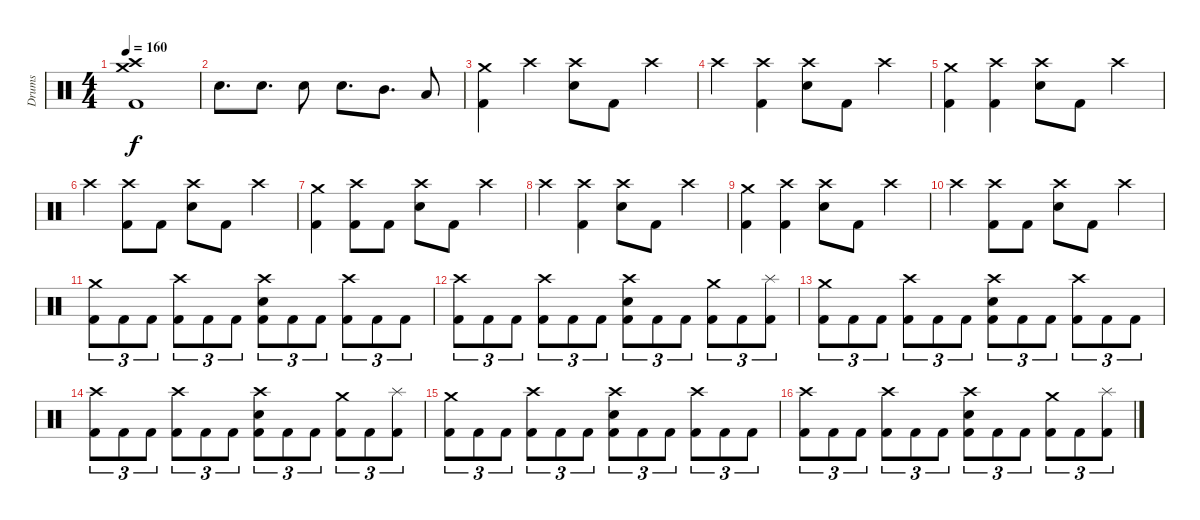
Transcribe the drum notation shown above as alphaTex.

\track ("Drums" "Drums") {instrument percussion}
\staff
\articulation defaults
\ts (4 4)
\tempo 160
\clef neutral
\ks c
("Crash medium (hit)" "Crash high (hit)" "Kick (hit) 2").1{dy f} |
"Electric Snare (hit)".8{d} "Electric Snare (hit)".8{d} "Electric Snare (hit)".8 "Electric Snare (hit)".8{d} "Mid Tom (hit)".8{d} "Low Tom (hit)".8 |
("Crash medium (hit)" "Kick (hit) 2").4 "Crash high (hit)".4 ("Crash high (hit)" "Electric Snare (hit)").8 "Kick (hit) 2".8 "Crash high (hit)".4 |
"Crash high (hit)".4 ("Crash high (hit)" "Kick (hit) 2").4 ("Crash high (hit)" "Electric Snare (hit)").8 "Kick (hit) 2".8 "Crash high (hit)".4 |
("Crash medium (hit)" "Kick (hit) 2").4 ("Crash high (hit)" "Kick (hit) 2").4 ("Crash high (hit)" "Electric Snare (hit)").8 "Kick (hit) 2".8 "Crash high (hit)".4 |
"Crash high (hit)".4 ("Crash high (hit)" "Kick (hit) 2").8 "Kick (hit) 2".8 ("Crash high (hit)" "Electric Snare (hit)").8 "Kick (hit) 2".8 "Crash high (hit)".4 |
("Crash medium (hit)" "Kick (hit) 2").4 ("Crash high (hit)" "Kick (hit) 2").8 "Kick (hit) 2".8 ("Crash high (hit)" "Electric Snare (hit)").8 "Kick (hit) 2".8 "Crash high (hit)".4 |
"Crash high (hit)".4 ("Crash high (hit)" "Kick (hit) 2").4 ("Crash high (hit)" "Electric Snare (hit)").8 "Kick (hit) 2".8 "Crash high (hit)".4 |
("Crash medium (hit)" "Kick (hit) 2").4 ("Crash high (hit)" "Kick (hit) 2").4 ("Crash high (hit)" "Electric Snare (hit)").8 "Kick (hit) 2".8 "Crash high (hit)".4 |
"Crash high (hit)".4 ("Crash high (hit)" "Kick (hit) 2").8 "Kick (hit) 2".8 ("Crash high (hit)" "Electric Snare (hit)").8 "Kick (hit) 2".8 "Crash high (hit)".4 |
("Crash medium (hit)" "Kick (hit) 2").8{tu (3 2)} "Kick (hit) 2".8{tu (3 2)} "Kick (hit) 2".8{tu (3 2)} ("Crash high (hit)" "Kick (hit) 2").8{tu (3 2)} "Kick (hit) 2".8{tu (3 2)} "Kick (hit) 2".8{tu (3 2)} ("Crash high (hit)" "Electric Snare (hit)" "Kick (hit) 2").8{tu (3 2)} "Kick (hit) 2".8{tu (3 2)} "Kick (hit) 2".8{tu (3 2)} ("Crash high (hit)" "Kick (hit) 2").8{tu (3 2)} "Kick (hit) 2".8{tu (3 2)} "Kick (hit) 2".8{tu (3 2)} |
("Crash high (hit)" "Kick (hit) 2").8{tu (3 2)} "Kick (hit) 2".8{tu (3 2)} "Kick (hit) 2".8{tu (3 2)} ("Crash high (hit)" "Kick (hit) 2").8{tu (3 2)} "Kick (hit) 2".8{tu (3 2)} "Kick (hit) 2".8{tu (3 2)} ("Crash high (hit)" "Electric Snare (hit)" "Kick (hit) 2").8{tu (3 2)} "Kick (hit) 2".8{tu (3 2)} "Kick (hit) 2".8{tu (3 2)} ("Crash medium (hit)" "Kick (hit) 2").8{tu (3 2)} "Kick (hit) 2".8{tu (3 2)} ("Splash (hit)" "Kick (hit) 2").8{tu (3 2)} |
("Crash medium (hit)" "Kick (hit) 2").8{tu (3 2)} "Kick (hit) 2".8{tu (3 2)} "Kick (hit) 2".8{tu (3 2)} ("Crash high (hit)" "Kick (hit) 2").8{tu (3 2)} "Kick (hit) 2".8{tu (3 2)} "Kick (hit) 2".8{tu (3 2)} ("Crash high (hit)" "Electric Snare (hit)" "Kick (hit) 2").8{tu (3 2)} "Kick (hit) 2".8{tu (3 2)} "Kick (hit) 2".8{tu (3 2)} ("Crash high (hit)" "Kick (hit) 2").8{tu (3 2)} "Kick (hit) 2".8{tu (3 2)} "Kick (hit) 2".8{tu (3 2)} |
("Crash high (hit)" "Kick (hit) 2").8{tu (3 2)} "Kick (hit) 2".8{tu (3 2)} "Kick (hit) 2".8{tu (3 2)} ("Crash high (hit)" "Kick (hit) 2").8{tu (3 2)} "Kick (hit) 2".8{tu (3 2)} "Kick (hit) 2".8{tu (3 2)} ("Crash high (hit)" "Electric Snare (hit)" "Kick (hit) 2").8{tu (3 2)} "Kick (hit) 2".8{tu (3 2)} "Kick (hit) 2".8{tu (3 2)} ("Crash medium (hit)" "Kick (hit) 2").8{tu (3 2)} "Kick (hit) 2".8{tu (3 2)} ("Splash (hit)" "Kick (hit) 2").8{tu (3 2)} |
("Crash medium (hit)" "Kick (hit) 2").8{tu (3 2)} "Kick (hit) 2".8{tu (3 2)} "Kick (hit) 2".8{tu (3 2)} ("Crash high (hit)" "Kick (hit) 2").8{tu (3 2)} "Kick (hit) 2".8{tu (3 2)} "Kick (hit) 2".8{tu (3 2)} ("Crash high (hit)" "Electric Snare (hit)" "Kick (hit) 2").8{tu (3 2)} "Kick (hit) 2".8{tu (3 2)} "Kick (hit) 2".8{tu (3 2)} ("Crash high (hit)" "Kick (hit) 2").8{tu (3 2)} "Kick (hit) 2".8{tu (3 2)} "Kick (hit) 2".8{tu (3 2)} |
("Crash high (hit)" "Kick (hit) 2").8{tu (3 2)} "Kick (hit) 2".8{tu (3 2)} "Kick (hit) 2".8{tu (3 2)} ("Crash high (hit)" "Kick (hit) 2").8{tu (3 2)} "Kick (hit) 2".8{tu (3 2)} "Kick (hit) 2".8{tu (3 2)} ("Crash high (hit)" "Electric Snare (hit)" "Kick (hit) 2").8{tu (3 2)} "Kick (hit) 2".8{tu (3 2)} "Kick (hit) 2".8{tu (3 2)} ("Crash medium (hit)" "Kick (hit) 2").8{tu (3 2)} "Kick (hit) 2".8{tu (3 2)} ("Splash (hit)" "Kick (hit) 2").8{tu (3 2)}
